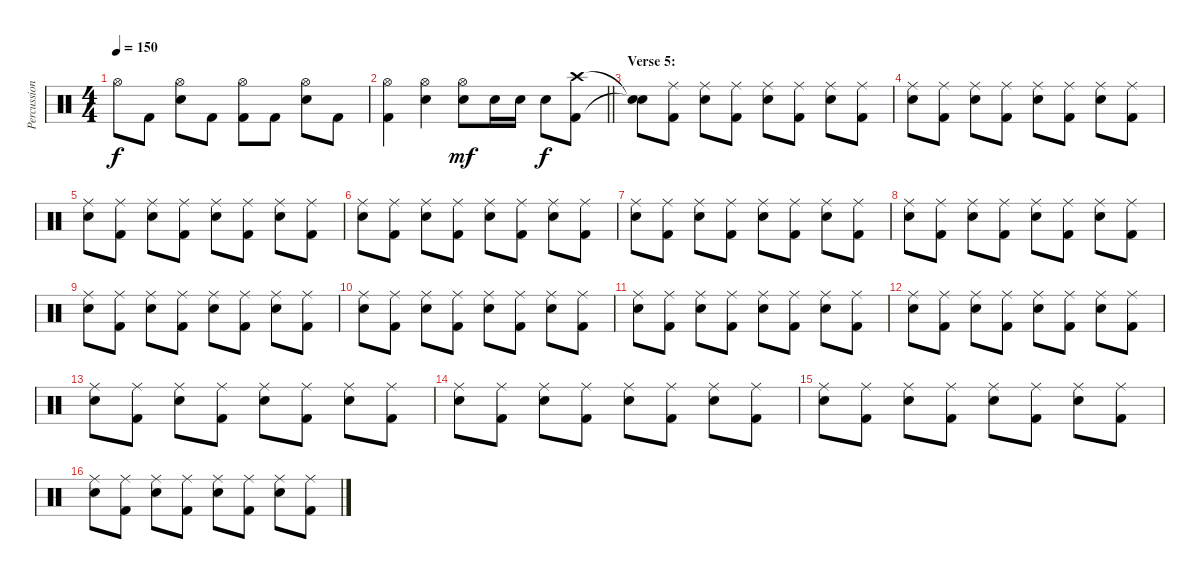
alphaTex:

\track ("Percussion" "Percussion") {instrument percussion}
\staff {score}
\articulation defaults
\ts (4 4)
\tempo 150
\clef neutral
\ks c "Hi-Hat (open)".8{dy f} "Kick (hit) 2".8
("Hi-Hat (open)" "Snare (hit) 2").8 "Kick (hit) 2".8 ("Hi-Hat (open)" "Kick (hit) 2").8 "Kick (hit) 2".8 ("Hi-Hat (open)" "Snare (hit) 2").8 "Kick (hit) 2".8 |
\barLineRight lightlight
("Hi-Hat (open)" "Kick (hit) 2").4 ("Hi-Hat (open)" "Snare (hit) 2").4 ("Hi-Hat (open)" "Snare (hit) 2").8{dy mf} "Snare (hit) 2".16 "Snare (hit) 2".16 "Snare (hit) 2".8{dy f} ("Crash high (hit)" "Kick (hit) 2").8 |
\section ("" "Verse 5:")
("Snare (hit)"{t} "Snare (hit)"{t}).8 ("Ride (middle)" "Kick (hit) 2").8 ("Ride (middle)" "Snare (hit) 2").8 ("Ride (middle)" "Kick (hit) 2").8 ("Ride (middle)" "Snare (hit) 2").8 ("Ride (middle)" "Kick (hit) 2").8 ("Ride (middle)" "Snare (hit) 2").8 ("Ride (middle)" "Kick (hit) 2").8 |
("Ride (middle)" "Snare (hit) 2").8 ("Ride (middle)" "Kick (hit) 2").8 ("Ride (middle)" "Snare (hit) 2").8 ("Ride (middle)" "Kick (hit) 2").8 ("Ride (middle)" "Snare (hit) 2").8 ("Ride (middle)" "Kick (hit) 2").8 ("Ride (middle)" "Snare (hit) 2").8 ("Ride (middle)" "Kick (hit) 2").8 |
("Ride (middle)" "Snare (hit) 2").8 ("Ride (middle)" "Kick (hit) 2").8 ("Ride (middle)" "Snare (hit) 2").8 ("Ride (middle)" "Kick (hit) 2").8 ("Ride (middle)" "Snare (hit) 2").8 ("Ride (middle)" "Kick (hit) 2").8 ("Ride (middle)" "Snare (hit) 2").8 ("Ride (middle)" "Kick (hit) 2").8 |
("Ride (middle)" "Snare (hit) 2").8 ("Ride (middle)" "Kick (hit) 2").8 ("Ride (middle)" "Snare (hit) 2").8 ("Ride (middle)" "Kick (hit) 2").8 ("Ride (middle)" "Snare (hit) 2").8 ("Ride (middle)" "Kick (hit) 2").8 ("Ride (middle)" "Snare (hit) 2").8 ("Ride (middle)" "Kick (hit) 2").8 |
("Ride (middle)" "Snare (hit) 2").8 ("Ride (middle)" "Kick (hit) 2").8 ("Ride (middle)" "Snare (hit) 2").8 ("Ride (middle)" "Kick (hit) 2").8 ("Ride (middle)" "Snare (hit) 2").8 ("Ride (middle)" "Kick (hit) 2").8 ("Ride (middle)" "Snare (hit) 2").8 ("Ride (middle)" "Kick (hit) 2").8 |
("Ride (middle)" "Snare (hit) 2").8 ("Ride (middle)" "Kick (hit) 2").8 ("Ride (middle)" "Snare (hit) 2").8 ("Ride (middle)" "Kick (hit) 2").8 ("Ride (middle)" "Snare (hit) 2").8 ("Ride (middle)" "Kick (hit) 2").8 ("Ride (middle)" "Snare (hit) 2").8 ("Ride (middle)" "Kick (hit) 2").8 |
("Ride (middle)" "Snare (hit) 2").8 ("Ride (middle)" "Kick (hit) 2").8 ("Ride (middle)" "Snare (hit) 2").8 ("Ride (middle)" "Kick (hit) 2").8 ("Ride (middle)" "Snare (hit) 2").8 ("Ride (middle)" "Kick (hit) 2").8 ("Ride (middle)" "Snare (hit) 2").8 ("Ride (middle)" "Kick (hit) 2").8 |
("Ride (middle)" "Snare (hit) 2").8 ("Ride (middle)" "Kick (hit) 2").8 ("Ride (middle)" "Snare (hit) 2").8 ("Ride (middle)" "Kick (hit) 2").8 ("Ride (middle)" "Snare (hit) 2").8 ("Ride (middle)" "Kick (hit) 2").8 ("Ride (middle)" "Snare (hit) 2").8 ("Ride (middle)" "Kick (hit) 2").8 |
("Ride (middle)" "Snare (hit) 2").8 ("Ride (middle)" "Kick (hit) 2").8 ("Ride (middle)" "Snare (hit) 2").8 ("Ride (middle)" "Kick (hit) 2").8 ("Ride (middle)" "Snare (hit) 2").8 ("Ride (middle)" "Kick (hit) 2").8 ("Ride (middle)" "Snare (hit) 2").8 ("Ride (middle)" "Kick (hit) 2").8 |
("Ride (middle)" "Snare (hit) 2").8 ("Ride (middle)" "Kick (hit) 2").8 ("Ride (middle)" "Snare (hit) 2").8 ("Ride (middle)" "Kick (hit) 2").8 ("Ride (middle)" "Snare (hit) 2").8 ("Ride (middle)" "Kick (hit) 2").8 ("Ride (middle)" "Snare (hit) 2").8 ("Ride (middle)" "Kick (hit) 2").8 |
("Ride (middle)" "Snare (hit) 2").8 ("Ride (middle)" "Kick (hit) 2").8 ("Ride (middle)" "Snare (hit) 2").8 ("Ride (middle)" "Kick (hit) 2").8 ("Ride (middle)" "Snare (hit) 2").8 ("Ride (middle)" "Kick (hit) 2").8 ("Ride (middle)" "Snare (hit) 2").8 ("Ride (middle)" "Kick (hit) 2").8 |
("Ride (middle)" "Snare (hit) 2").8 ("Ride (middle)" "Kick (hit) 2").8 ("Ride (middle)" "Snare (hit) 2").8 ("Ride (middle)" "Kick (hit) 2").8 ("Ride (middle)" "Snare (hit) 2").8 ("Ride (middle)" "Kick (hit) 2").8 ("Ride (middle)" "Snare (hit) 2").8 ("Ride (middle)" "Kick (hit) 2").8 |
("Ride (middle)" "Snare (hit) 2").8 ("Ride (middle)" "Kick (hit) 2").8 ("Ride (middle)" "Snare (hit) 2").8 ("Ride (middle)" "Kick (hit) 2").8 ("Ride (middle)" "Snare (hit) 2").8 ("Ride (middle)" "Kick (hit) 2").8 ("Ride (middle)" "Snare (hit) 2").8 ("Ride (middle)" "Kick (hit) 2").8 |
("Ride (middle)" "Snare (hit) 2").8 ("Ride (middle)" "Kick (hit) 2").8 ("Ride (middle)" "Snare (hit) 2").8 ("Ride (middle)" "Kick (hit) 2").8 ("Ride (middle)" "Snare (hit) 2").8 ("Ride (middle)" "Kick (hit) 2").8 ("Ride (middle)" "Snare (hit) 2").8 ("Ride (middle)" "Kick (hit) 2").8
